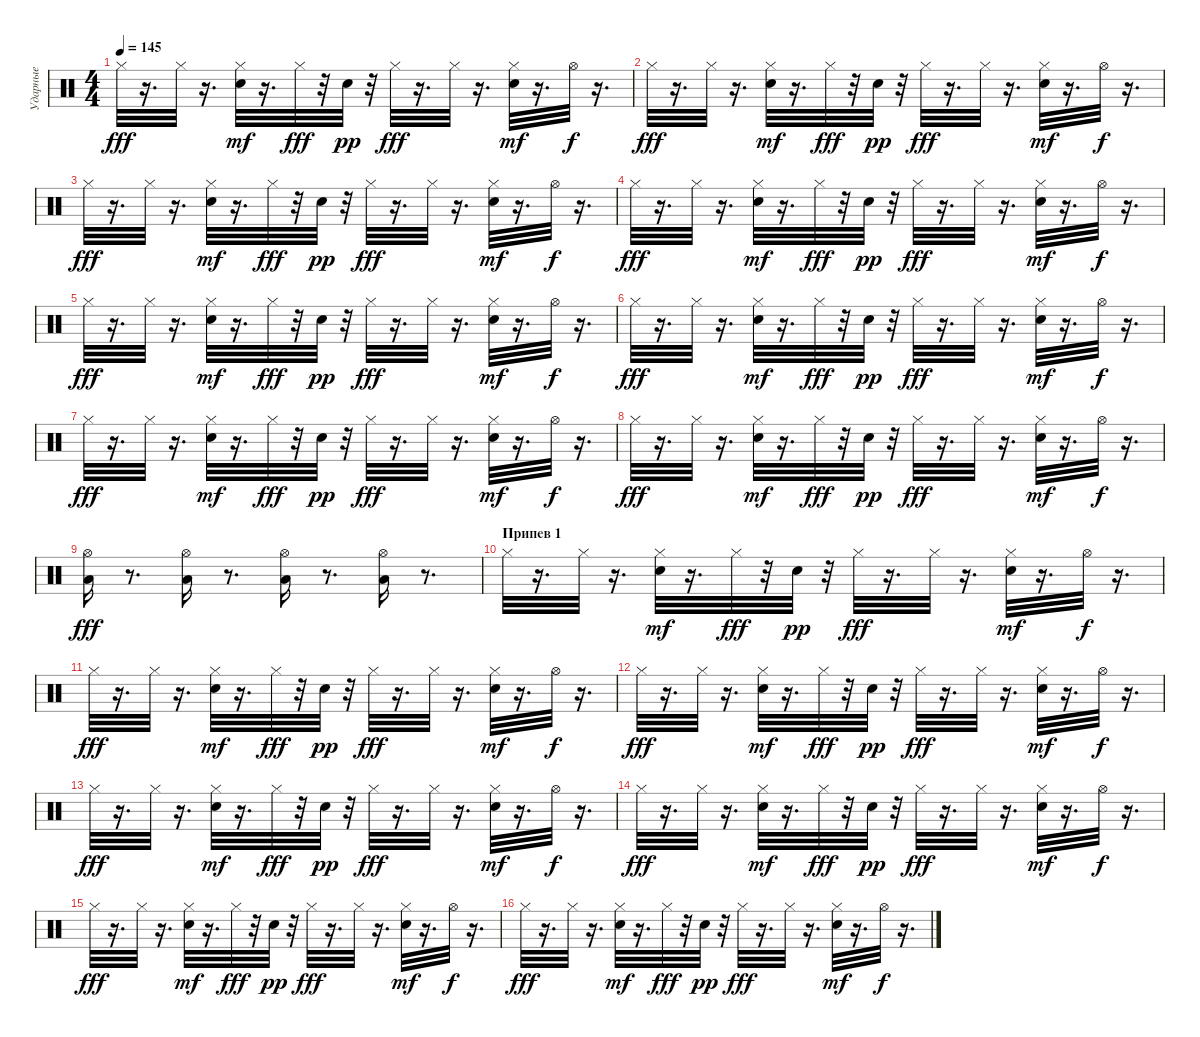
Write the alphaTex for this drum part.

\track ("Ударные" "Ударные") {instrument percussion}
\staff {score}
\articulation defaults
\ts (4 4)
\tempo 145
\clef neutral
\ks c "Hi-Hat (closed)".32{dy fff}
r.16{d} "Hi-Hat (closed)".32 r.16{d} ("Hi-Hat (closed)" "Electric Snare (hit)").32{dy mf} r.16{d} "Hi-Hat (closed)".32{dy fff} r.32 "Electric Snare (hit)".32{dy pp} r.32 "Hi-Hat (closed)".32{dy fff} r.16{d} "Hi-Hat (closed)".32 r.16{d} ("Hi-Hat (closed)" "Electric Snare (hit)").32{dy mf} r.16{d} "Hi-Hat (open)".32{dy f} r.16{d} |
"Hi-Hat (closed)".32{dy fff} r.16{d} "Hi-Hat (closed)".32 r.16{d} ("Hi-Hat (closed)" "Electric Snare (hit)").32{dy mf} r.16{d} "Hi-Hat (closed)".32{dy fff} r.32 "Electric Snare (hit)".32{dy pp} r.32 "Hi-Hat (closed)".32{dy fff} r.16{d} "Hi-Hat (closed)".32 r.16{d} ("Hi-Hat (closed)" "Electric Snare (hit)").32{dy mf} r.16{d} "Hi-Hat (open)".32{dy f} r.16{d} |
"Hi-Hat (closed)".32{dy fff} r.16{d} "Hi-Hat (closed)".32 r.16{d} ("Hi-Hat (closed)" "Electric Snare (hit)").32{dy mf} r.16{d} "Hi-Hat (closed)".32{dy fff} r.32 "Electric Snare (hit)".32{dy pp} r.32 "Hi-Hat (closed)".32{dy fff} r.16{d} "Hi-Hat (closed)".32 r.16{d} ("Hi-Hat (closed)" "Electric Snare (hit)").32{dy mf} r.16{d} "Hi-Hat (open)".32{dy f} r.16{d} |
"Hi-Hat (closed)".32{dy fff} r.16{d} "Hi-Hat (closed)".32 r.16{d} ("Hi-Hat (closed)" "Electric Snare (hit)").32{dy mf} r.16{d} "Hi-Hat (closed)".32{dy fff} r.32 "Electric Snare (hit)".32{dy pp} r.32 "Hi-Hat (closed)".32{dy fff} r.16{d} "Hi-Hat (closed)".32 r.16{d} ("Hi-Hat (closed)" "Electric Snare (hit)").32{dy mf} r.16{d} "Hi-Hat (open)".32{dy f} r.16{d} |
"Hi-Hat (closed)".32{dy fff} r.16{d} "Hi-Hat (closed)".32 r.16{d} ("Hi-Hat (closed)" "Electric Snare (hit)").32{dy mf} r.16{d} "Hi-Hat (closed)".32{dy fff} r.32 "Electric Snare (hit)".32{dy pp} r.32 "Hi-Hat (closed)".32{dy fff} r.16{d} "Hi-Hat (closed)".32 r.16{d} ("Hi-Hat (closed)" "Electric Snare (hit)").32{dy mf} r.16{d} "Hi-Hat (open)".32{dy f} r.16{d} |
"Hi-Hat (closed)".32{dy fff} r.16{d} "Hi-Hat (closed)".32 r.16{d} ("Hi-Hat (closed)" "Electric Snare (hit)").32{dy mf} r.16{d} "Hi-Hat (closed)".32{dy fff} r.32 "Electric Snare (hit)".32{dy pp} r.32 "Hi-Hat (closed)".32{dy fff} r.16{d} "Hi-Hat (closed)".32 r.16{d} ("Hi-Hat (closed)" "Electric Snare (hit)").32{dy mf} r.16{d} "Hi-Hat (open)".32{dy f} r.16{d} |
"Hi-Hat (closed)".32{dy fff} r.16{d} "Hi-Hat (closed)".32 r.16{d} ("Hi-Hat (closed)" "Electric Snare (hit)").32{dy mf} r.16{d} "Hi-Hat (closed)".32{dy fff} r.32 "Electric Snare (hit)".32{dy pp} r.32 "Hi-Hat (closed)".32{dy fff} r.16{d} "Hi-Hat (closed)".32 r.16{d} ("Hi-Hat (closed)" "Electric Snare (hit)").32{dy mf} r.16{d} "Hi-Hat (open)".32{dy f} r.16{d} |
"Hi-Hat (closed)".32{dy fff} r.16{d} "Hi-Hat (closed)".32 r.16{d} ("Hi-Hat (closed)" "Electric Snare (hit)").32{dy mf} r.16{d} "Hi-Hat (closed)".32{dy fff} r.32 "Electric Snare (hit)".32{dy pp} r.32 "Hi-Hat (closed)".32{dy fff} r.16{d} "Hi-Hat (closed)".32 r.16{d} ("Hi-Hat (closed)" "Electric Snare (hit)").32{dy mf} r.16{d} "Hi-Hat (open)".32{dy f} r.16{d} |
("Low Tom (hit)" "Hi-Hat (open)").16{dy fff} r.8{d} ("Low Tom (hit)" "Hi-Hat (open)").16 r.8{d} ("Low Tom (hit)" "Hi-Hat (open)").16 r.8{d} ("Low Tom (hit)" "Hi-Hat (open)").16 r.8{d} |
\section ("" "Припев 1")
"Hi-Hat (closed)".32 r.16{d} "Hi-Hat (closed)".32 r.16{d} ("Hi-Hat (closed)" "Electric Snare (hit)").32{dy mf} r.16{d} "Hi-Hat (closed)".32{dy fff} r.32 "Electric Snare (hit)".32{dy pp} r.32 "Hi-Hat (closed)".32{dy fff} r.16{d} "Hi-Hat (closed)".32 r.16{d} ("Hi-Hat (closed)" "Electric Snare (hit)").32{dy mf} r.16{d} "Hi-Hat (open)".32{dy f} r.16{d} |
"Hi-Hat (closed)".32{dy fff} r.16{d} "Hi-Hat (closed)".32 r.16{d} ("Hi-Hat (closed)" "Electric Snare (hit)").32{dy mf} r.16{d} "Hi-Hat (closed)".32{dy fff} r.32 "Electric Snare (hit)".32{dy pp} r.32 "Hi-Hat (closed)".32{dy fff} r.16{d} "Hi-Hat (closed)".32 r.16{d} ("Hi-Hat (closed)" "Electric Snare (hit)").32{dy mf} r.16{d} "Hi-Hat (open)".32{dy f} r.16{d} |
"Hi-Hat (closed)".32{dy fff} r.16{d} "Hi-Hat (closed)".32 r.16{d} ("Hi-Hat (closed)" "Electric Snare (hit)").32{dy mf} r.16{d} "Hi-Hat (closed)".32{dy fff} r.32 "Electric Snare (hit)".32{dy pp} r.32 "Hi-Hat (closed)".32{dy fff} r.16{d} "Hi-Hat (closed)".32 r.16{d} ("Hi-Hat (closed)" "Electric Snare (hit)").32{dy mf} r.16{d} "Hi-Hat (open)".32{dy f} r.16{d} |
"Hi-Hat (closed)".32{dy fff} r.16{d} "Hi-Hat (closed)".32 r.16{d} ("Hi-Hat (closed)" "Electric Snare (hit)").32{dy mf} r.16{d} "Hi-Hat (closed)".32{dy fff} r.32 "Electric Snare (hit)".32{dy pp} r.32 "Hi-Hat (closed)".32{dy fff} r.16{d} "Hi-Hat (closed)".32 r.16{d} ("Hi-Hat (closed)" "Electric Snare (hit)").32{dy mf} r.16{d} "Hi-Hat (open)".32{dy f} r.16{d} |
"Hi-Hat (closed)".32{dy fff} r.16{d} "Hi-Hat (closed)".32 r.16{d} ("Hi-Hat (closed)" "Electric Snare (hit)").32{dy mf} r.16{d} "Hi-Hat (closed)".32{dy fff} r.32 "Electric Snare (hit)".32{dy pp} r.32 "Hi-Hat (closed)".32{dy fff} r.16{d} "Hi-Hat (closed)".32 r.16{d} ("Hi-Hat (closed)" "Electric Snare (hit)").32{dy mf} r.16{d} "Hi-Hat (open)".32{dy f} r.16{d} |
"Hi-Hat (closed)".32{dy fff} r.16{d} "Hi-Hat (closed)".32 r.16{d} ("Hi-Hat (closed)" "Electric Snare (hit)").32{dy mf} r.16{d} "Hi-Hat (closed)".32{dy fff} r.32 "Electric Snare (hit)".32{dy pp} r.32 "Hi-Hat (closed)".32{dy fff} r.16{d} "Hi-Hat (closed)".32 r.16{d} ("Hi-Hat (closed)" "Electric Snare (hit)").32{dy mf} r.16{d} "Hi-Hat (open)".32{dy f} r.16{d} |
"Hi-Hat (closed)".32{dy fff} r.16{d} "Hi-Hat (closed)".32 r.16{d} ("Hi-Hat (closed)" "Electric Snare (hit)").32{dy mf} r.16{d} "Hi-Hat (closed)".32{dy fff} r.32 "Electric Snare (hit)".32{dy pp} r.32 "Hi-Hat (closed)".32{dy fff} r.16{d} "Hi-Hat (closed)".32 r.16{d} ("Hi-Hat (closed)" "Electric Snare (hit)").32{dy mf} r.16{d} "Hi-Hat (open)".32{dy f} r.16{d}
